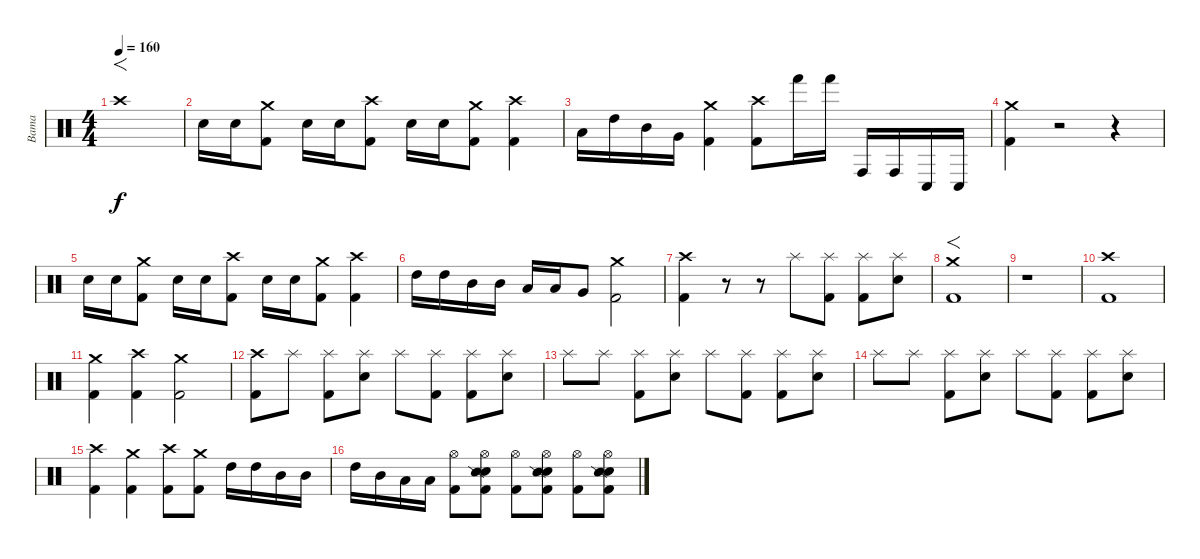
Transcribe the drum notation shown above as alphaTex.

\track ("Bama" "Bama") {instrument percussion}
\staff {score}
\articulation defaults
\ts (4 4)
\tempo 160
\clef neutral
\ks c "Crash high (hit)".1{f dy f volume 16}
|
"Electric Snare (hit)".16{volume 13} "Electric Snare (hit)".16 ("Crash medium (hit)" "Kick (hit) 2").8 "Electric Snare (hit)".16 "Electric Snare (hit)".16 ("Crash high (hit)" "Kick (hit) 2").8 "Electric Snare (hit)".16 "Electric Snare (hit)".16 ("Crash medium (hit)" "Kick (hit) 2").8 ("Crash high (hit)" "Kick (hit) 2").4 |
"Low Tom (hit)".16 "High Tom (hit)".16 "Mid Tom (hit)".16 "Very Low Tom (hit)".16 ("Crash medium (hit)" "Kick (hit) 2").4 ("Crash high (hit)" "Kick (hit) 2").8 "Hand (hit)".16 "Hand (hit)".16 "Conga high (hit)".16 "Conga high (hit)".16 "Conga low (hit)".16 "Conga low (hit)".16 |
("Crash medium (hit)" "Kick (hit) 2").4 r.2 r.4 |
"Electric Snare (hit)".16{volume 13} "Electric Snare (hit)".16 ("Crash medium (hit)" "Kick (hit) 2").8 "Electric Snare (hit)".16 "Electric Snare (hit)".16 ("Crash high (hit)" "Kick (hit) 2").8 "Electric Snare (hit)".16 "Electric Snare (hit)".16 ("Crash medium (hit)" "Kick (hit) 2").8 ("Crash high (hit)" "Kick (hit) 2").4 |
"High Tom (hit)".16 "High Tom (hit)".16 "Mid Tom (hit)".16 "Mid Tom (hit)".16 "Low Tom (hit)".16 "Low Tom (hit)".16 "Very Low Tom (hit)".8 ("Crash medium (hit)" "Kick (hit) 2").2 |
("Crash high (hit)" "Kick (hit) 2").4 r.8 r.8 "Splash (hit)".8 ("Splash (hit)" "Kick (hit) 2").8 ("Splash (hit)" "Kick (hit) 2").8 ("Splash (hit)" "Electric Snare (hit)").8 |
("Crash medium (hit)" "Kick (hit) 2").1{f} |
r.1 |
("Crash high (hit)" "Kick (hit) 2").1 |
("Crash medium (hit)" "Kick (hit) 2").4 ("Crash high (hit)" "Kick (hit) 2").4 ("Crash medium (hit)" "Kick (hit) 2").2 |
("Crash high (hit)" "Kick (hit) 2").8 "Splash (hit)".8 ("Splash (hit)" "Kick (hit) 2").8 ("Splash (hit)" "Electric Snare (hit)").8 "Splash (hit)".8 ("Splash (hit)" "Kick (hit) 2").8 ("Splash (hit)" "Kick (hit) 2").8 ("Splash (hit)" "Electric Snare (hit)").8 |
"Splash (hit)".8 "Splash (hit)".8 ("Splash (hit)" "Kick (hit) 2").8 ("Splash (hit)" "Electric Snare (hit)").8 "Splash (hit)".8 ("Splash (hit)" "Kick (hit) 2").8 ("Splash (hit)" "Kick (hit) 2").8 ("Splash (hit)" "Electric Snare (hit)").8 |
"Splash (hit)".8 "Splash (hit)".8 ("Splash (hit)" "Kick (hit) 2").8 ("Splash (hit)" "Electric Snare (hit)").8 "Splash (hit)".8 ("Splash (hit)" "Kick (hit) 2").8 ("Splash (hit)" "Kick (hit) 2").8 ("Splash (hit)" "Electric Snare (hit)").8 |
("Crash high (hit)" "Kick (hit) 2").4 ("Crash medium (hit)" "Kick (hit) 2").4 ("Crash high (hit)" "Kick (hit) 2").8 ("Crash medium (hit)" "Kick (hit) 2").8 "High Tom (hit)".16 "High Tom (hit)".16 "Mid Tom (hit)".16 "Mid Tom (hit)".16 |
"High Tom (hit)".16 "Mid Tom (hit)".16 "Low Tom (hit)".16 "Low Tom (hit)".16 ("Hi-Hat (open)" "Kick (hit) 2").8 ("Hi-Hat (open)" "Electric Snare (hit)" "Snare (side stick) 2" "Kick (hit) 2").8 ("Hi-Hat (open)" "Kick (hit) 2").8 ("Hi-Hat (open)" "Electric Snare (hit)" "Snare (side stick) 2" "Kick (hit) 2").8 ("Hi-Hat (open)" "Kick (hit) 2").8 ("Hi-Hat (open)" "Electric Snare (hit)" "Snare (side stick) 2" "Kick (hit) 2").8
